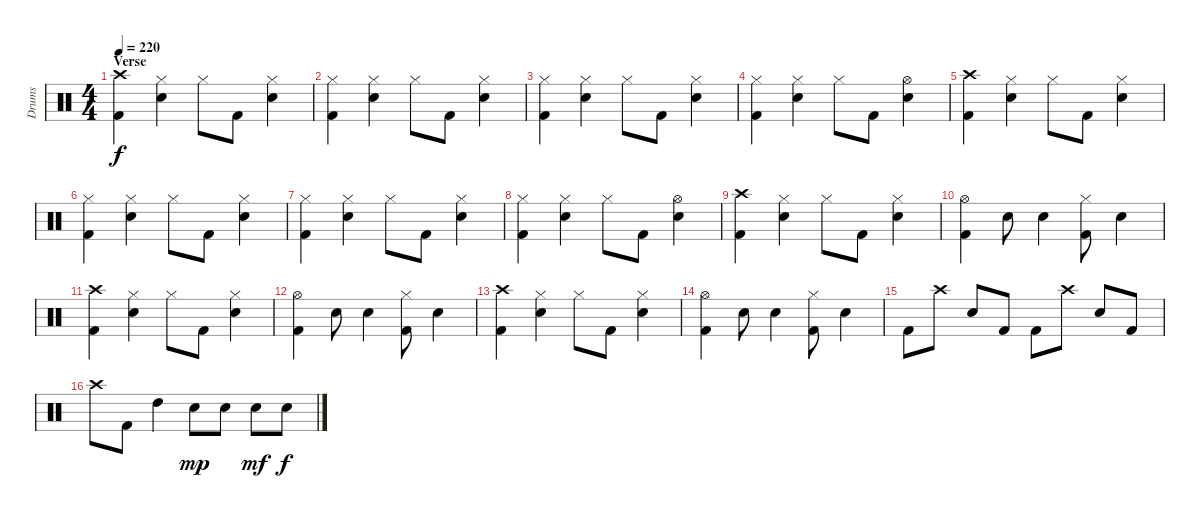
\track ("Drums" "Drums") {instrument percussion}
\staff {score}
\articulation defaults
\ts (4 4)
\section ("" "Verse")
\tempo 220
\clef neutral
\ks c
("Crash high (hit)" "Kick (hit) 2").4{dy f} ("Hi-Hat (closed)" "Snare (hit) 2").4 "Hi-Hat (closed)".8 "Kick (hit) 2".8 ("Hi-Hat (closed)" "Snare (hit) 2").4 |
("Hi-Hat (closed)" "Kick (hit) 2").4 ("Hi-Hat (closed)" "Snare (hit) 2").4 "Hi-Hat (closed)".8 "Kick (hit) 2".8 ("Hi-Hat (closed)" "Snare (hit) 2").4 |
("Hi-Hat (closed)" "Kick (hit) 2").4 ("Hi-Hat (closed)" "Snare (hit) 2").4 "Hi-Hat (closed)".8 "Kick (hit) 2".8 ("Hi-Hat (closed)" "Snare (hit) 2").4 |
("Hi-Hat (closed)" "Kick (hit) 2").4 ("Hi-Hat (closed)" "Snare (hit) 2").4 "Hi-Hat (closed)".8 "Kick (hit) 2".8 ("Hi-Hat (open)" "Snare (hit) 2").4 |
("Crash high (hit)" "Kick (hit) 2").4 ("Hi-Hat (closed)" "Snare (hit) 2").4 "Hi-Hat (closed)".8 "Kick (hit) 2".8 ("Hi-Hat (closed)" "Snare (hit) 2").4 |
("Hi-Hat (closed)" "Kick (hit) 2").4 ("Hi-Hat (closed)" "Snare (hit) 2").4 "Hi-Hat (closed)".8 "Kick (hit) 2".8 ("Hi-Hat (closed)" "Snare (hit) 2").4 |
("Hi-Hat (closed)" "Kick (hit) 2").4 ("Hi-Hat (closed)" "Snare (hit) 2").4 "Hi-Hat (closed)".8 "Kick (hit) 2".8 ("Hi-Hat (closed)" "Snare (hit) 2").4 |
("Hi-Hat (closed)" "Kick (hit) 2").4 ("Hi-Hat (closed)" "Snare (hit) 2").4 "Hi-Hat (closed)".8 "Kick (hit) 2".8 ("Hi-Hat (open)" "Snare (hit) 2").4 |
("Crash high (hit)" "Kick (hit) 2").4 ("Hi-Hat (closed)" "Snare (hit) 2").4 "Hi-Hat (closed)".8 "Kick (hit) 2".8 ("Hi-Hat (closed)" "Snare (hit) 2").4 |
("Hi-Hat (open)" "Kick (hit) 2").4 "Snare (hit) 2".8 "Snare (hit) 2".4 ("Hi-Hat (closed)" "Kick (hit) 2").8 "Snare (hit) 2".4 |
("Crash high (hit)" "Kick (hit) 2").4 ("Hi-Hat (closed)" "Snare (hit) 2").4 "Hi-Hat (closed)".8 "Kick (hit) 2".8 ("Hi-Hat (closed)" "Snare (hit) 2").4 |
("Hi-Hat (open)" "Kick (hit) 2").4 "Snare (hit) 2".8 "Snare (hit) 2".4 ("Hi-Hat (closed)" "Kick (hit) 2").8 "Snare (hit) 2".4 |
("Crash high (hit)" "Kick (hit) 2").4 ("Hi-Hat (closed)" "Snare (hit) 2").4 "Hi-Hat (closed)".8 "Kick (hit) 2".8 ("Hi-Hat (closed)" "Snare (hit) 2").4 |
("Hi-Hat (open)" "Kick (hit) 2").4 "Snare (hit) 2".8 "Snare (hit) 2".4 ("Hi-Hat (closed)" "Kick (hit) 2").8 "Snare (hit) 2".4 |
"Kick (hit) 2".8 "Crash high (hit)".8 "Snare (hit) 2".8 "Kick (hit) 2".8 "Kick (hit) 2".8 "Crash high (hit)".8 "Snare (hit) 2".8 "Kick (hit) 2".8 |
"Crash high (hit)".8 "Kick (hit) 2".8 "High Tom (hit)".4 "Snare (hit) 2".8{dy mp} "Snare (hit) 2".8 "Snare (hit) 2".8{dy mf} "Snare (hit) 2".8{dy f}
